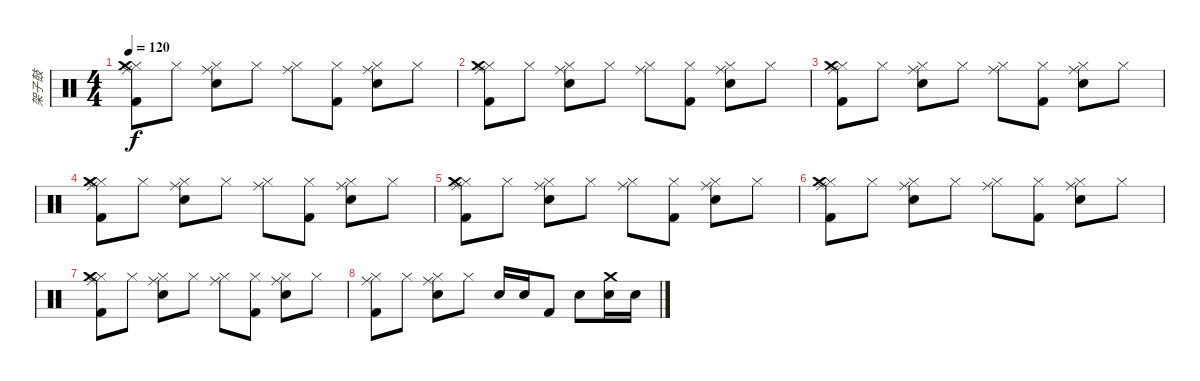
\track ("架子鼓" "架子鼓") {instrument percussion}
\staff {score}
\articulation defaults
\ts (4 4)
\tempo 120
\clef neutral
\ks c
("Hi-Hat (closed)" "Kick (hit) 2" "Ride (middle)" "Crash medium (hit)").8{dy f} "Hi-Hat (closed)".8 ("Hi-Hat (closed)" "Snare (hit) 2" "Ride (middle)").8 "Hi-Hat (closed)".8 ("Hi-Hat (closed)" "Ride (middle)").8 ("Hi-Hat (closed)" "Kick (hit) 2").8 ("Hi-Hat (closed)" "Snare (hit) 2" "Ride (middle)").8 "Hi-Hat (closed)".8 |
("Hi-Hat (closed)" "Kick (hit) 2" "Ride (middle)" "Crash medium (hit)").8 "Hi-Hat (closed)".8 ("Hi-Hat (closed)" "Snare (hit) 2" "Ride (middle)").8 "Hi-Hat (closed)".8 ("Hi-Hat (closed)" "Ride (middle)").8 ("Hi-Hat (closed)" "Kick (hit) 2").8 ("Hi-Hat (closed)" "Snare (hit) 2" "Ride (middle)").8 "Hi-Hat (closed)".8 |
("Hi-Hat (closed)" "Kick (hit) 2" "Ride (middle)" "Crash medium (hit)").8 "Hi-Hat (closed)".8 ("Hi-Hat (closed)" "Snare (hit) 2" "Ride (middle)").8 "Hi-Hat (closed)".8 ("Hi-Hat (closed)" "Ride (middle)").8 ("Hi-Hat (closed)" "Kick (hit) 2").8 ("Hi-Hat (closed)" "Snare (hit) 2" "Ride (middle)").8 "Hi-Hat (closed)".8 |
("Hi-Hat (closed)" "Kick (hit) 2" "Ride (middle)" "Crash medium (hit)").8 "Hi-Hat (closed)".8 ("Hi-Hat (closed)" "Snare (hit) 2" "Ride (middle)").8 "Hi-Hat (closed)".8 ("Hi-Hat (closed)" "Ride (middle)").8 ("Hi-Hat (closed)" "Kick (hit) 2").8 ("Hi-Hat (closed)" "Snare (hit) 2" "Ride (middle)").8 "Hi-Hat (closed)".8 |
("Hi-Hat (closed)" "Kick (hit) 2" "Ride (middle)" "Crash medium (hit)").8 "Hi-Hat (closed)".8 ("Hi-Hat (closed)" "Snare (hit) 2" "Ride (middle)").8 "Hi-Hat (closed)".8 ("Hi-Hat (closed)" "Ride (middle)").8 ("Hi-Hat (closed)" "Kick (hit) 2").8 ("Hi-Hat (closed)" "Snare (hit) 2" "Ride (middle)").8 "Hi-Hat (closed)".8 |
("Hi-Hat (closed)" "Kick (hit) 2" "Ride (middle)" "Crash medium (hit)").8 "Hi-Hat (closed)".8 ("Hi-Hat (closed)" "Snare (hit) 2" "Ride (middle)").8 "Hi-Hat (closed)".8 ("Hi-Hat (closed)" "Ride (middle)").8 ("Hi-Hat (closed)" "Kick (hit) 2").8 ("Hi-Hat (closed)" "Snare (hit) 2" "Ride (middle)").8 "Hi-Hat (closed)".8 |
("Hi-Hat (closed)" "Kick (hit) 2" "Ride (middle)" "Crash medium (hit)").8 "Hi-Hat (closed)".8 ("Hi-Hat (closed)" "Snare (hit) 2" "Ride (middle)").8 "Hi-Hat (closed)".8 ("Hi-Hat (closed)" "Ride (middle)").8 ("Hi-Hat (closed)" "Kick (hit) 2").8 ("Hi-Hat (closed)" "Snare (hit) 2" "Ride (middle)").8 "Hi-Hat (closed)".8 |
("Hi-Hat (closed)" "Kick (hit) 2" "Ride (middle)").8 "Hi-Hat (closed)".8 ("Hi-Hat (closed)" "Snare (hit) 2" "Ride (middle)").8 "Hi-Hat (closed)".8 "Snare (hit) 2".16 "Snare (hit) 2".16 "Kick (hit) 2".8 "Snare (hit) 2".8 ("Crash medium (hit)" "Snare (hit) 2").16 "Snare (hit) 2".16
